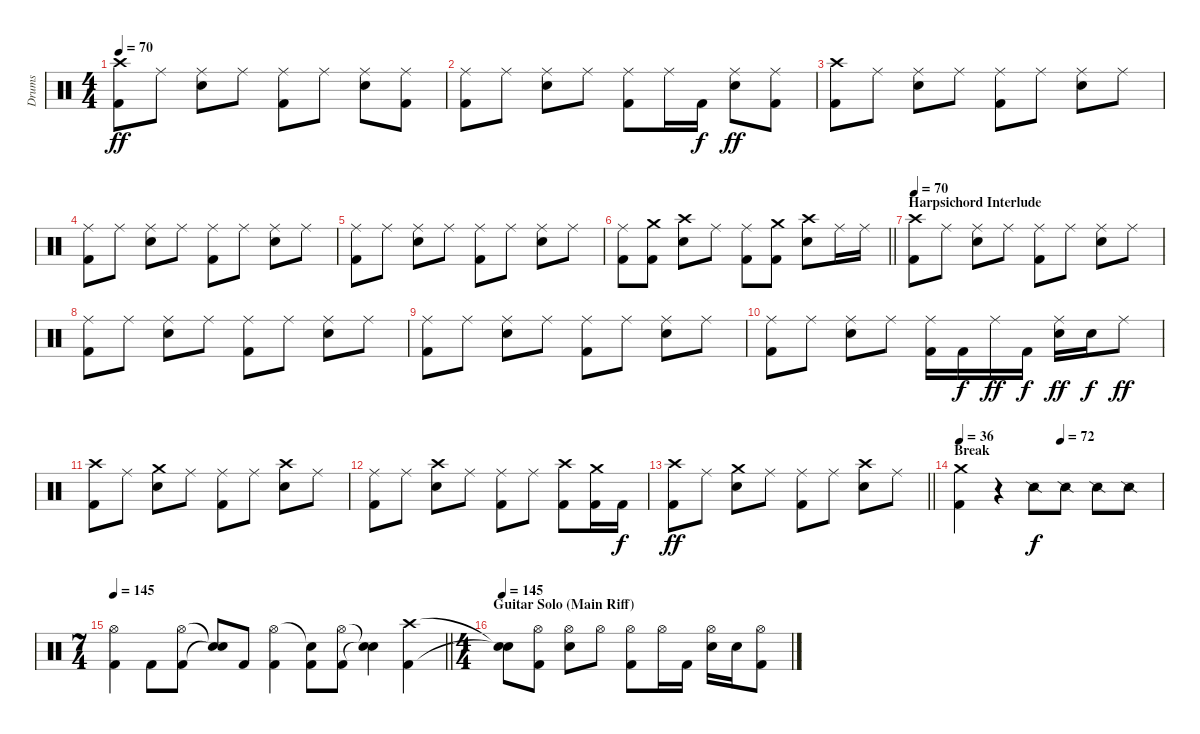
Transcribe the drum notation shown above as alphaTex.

\track ("Drums" "Drums") {instrument percussion}
\staff {score}
\articulation defaults
\ts (4 4)
\tempo 70
\clef neutral
\ks c
("Crash high (hit)" "Kick (hit) 2").8{dy ff} "Ride (middle)".8 ("Ride (middle)" "Snare (hit) 2").8 "Ride (middle)".8 ("Ride (middle)" "Kick (hit) 2").8 "Ride (middle)".8 ("Ride (middle)" "Snare (hit) 2").8 ("Ride (middle)" "Kick (hit) 2").8 |
("Ride (middle)" "Kick (hit) 2").8 "Ride (middle)".8 ("Ride (middle)" "Snare (hit) 2").8 "Ride (middle)".8 ("Ride (middle)" "Kick (hit) 2").8 "Ride (middle)".16 "Kick (hit) 2".16{dy f} ("Ride (middle)" "Snare (hit) 2").8{dy ff} ("Ride (middle)" "Kick (hit) 2").8 |
("Crash high (hit)" "Kick (hit) 2").8 "Ride (middle)".8 ("Ride (middle)" "Snare (hit) 2").8 "Ride (middle)".8 ("Ride (middle)" "Kick (hit) 2").8 "Ride (middle)".8 ("Ride (middle)" "Snare (hit) 2").8 "Ride (middle)".8 |
("Ride (middle)" "Kick (hit) 2").8 "Ride (middle)".8 ("Ride (middle)" "Snare (hit) 2").8 "Ride (middle)".8 ("Ride (middle)" "Kick (hit) 2").8 "Ride (middle)".8 ("Ride (middle)" "Snare (hit) 2").8 "Ride (middle)".8 |
("Ride (middle)" "Kick (hit) 2").8 "Ride (middle)".8 ("Ride (middle)" "Snare (hit) 2").8 "Ride (middle)".8 ("Ride (middle)" "Kick (hit) 2").8 "Ride (middle)".8 ("Ride (middle)" "Snare (hit) 2").8 "Ride (middle)".8 |
\barLineRight lightlight
("Ride (middle)" "Kick (hit) 2").8 ("Crash medium (hit)" "Kick (hit) 2").8 ("Crash high (hit)" "Snare (hit) 2").8 "Ride (middle)".8 ("Ride (middle)" "Kick (hit) 2").8 ("Crash medium (hit)" "Kick (hit) 2").8 ("Crash high (hit)" "Snare (hit) 2").8 "Ride (middle)".16 "Ride (middle)".16 |
\section ("" "Harpsichord Interlude")
\tempo 70
("Crash high (hit)" "Kick (hit) 2").8 "Ride (middle)".8 ("Ride (middle)" "Snare (hit) 2").8 "Ride (middle)".8 ("Ride (middle)" "Kick (hit) 2").8 "Ride (middle)".8 ("Ride (middle)" "Snare (hit) 2").8 "Ride (middle)".8 |
("Ride (middle)" "Kick (hit) 2").8 "Ride (middle)".8 ("Ride (middle)" "Snare (hit) 2").8 "Ride (middle)".8 ("Ride (middle)" "Kick (hit) 2").8 "Ride (middle)".8 ("Ride (middle)" "Snare (hit) 2").8 "Ride (middle)".8 |
("Ride (middle)" "Kick (hit) 2").8 "Ride (middle)".8 ("Ride (middle)" "Snare (hit) 2").8 "Ride (middle)".8 ("Ride (middle)" "Kick (hit) 2").8 "Ride (middle)".8 ("Ride (middle)" "Snare (hit) 2").8 "Ride (middle)".8 |
("Ride (middle)" "Kick (hit) 2").8 "Ride (middle)".8 ("Ride (middle)" "Snare (hit) 2").8 "Ride (middle)".8 ("Ride (middle)" "Kick (hit) 2").16 "Kick (hit) 2".16{dy f} "Ride (middle)".16{dy ff} "Kick (hit) 2".16{dy f} ("Ride (middle)" "Snare (hit) 2").16{dy ff} "Snare (hit) 2".16{dy f} "Ride (middle)".8{dy ff} |
("Crash high (hit)" "Kick (hit) 2").8 "Ride (middle)".8 ("Crash medium (hit)" "Snare (hit) 2").8 "Ride (middle)".8 ("Ride (middle)" "Kick (hit) 2").8 "Ride (middle)".8 ("Crash high (hit)" "Snare (hit) 2").8 "Ride (middle)".8 |
("Ride (middle)" "Kick (hit) 2").8 "Ride (middle)".8 ("Crash high (hit)" "Snare (hit) 2").8 "Ride (middle)".8 ("Ride (middle)" "Kick (hit) 2").8 "Ride (middle)".8 ("Crash high (hit)" "Kick (hit) 2").8 ("Crash medium (hit)" "Kick (hit) 2").16 "Kick (hit) 2".16{dy f} |
\barLineRight lightlight
("Crash high (hit)" "Kick (hit) 2").8{dy ff} "Ride (middle)".8 ("Crash medium (hit)" "Snare (hit) 2").8 "Ride (middle)".8 ("Ride (middle)" "Kick (hit) 2").8 "Ride (middle)".8 ("Crash high (hit)" "Snare (hit) 2").8 "Ride (middle)".8 |
\section ("" "Break")
\tempo 36
\tempo (72 0.5)
("Crash medium (hit)" "Kick (hit) 2").4 r.4 "Snare (side stick) 2".8{dy f} "Snare (side stick) 2".8 "Snare (side stick) 2".8 "Snare (side stick) 2".8 |
\ts (7 4)
\tempo 145
\barLineRight lightlight
("Hi-Hat (open)" "Kick (hit) 2").4 "Kick (hit) 2".8 ("Hi-Hat (open)" "Kick (hit) 2").8 ("Snare (hit)"{t} "Snare (hit)"{t}).8 "Kick (hit) 2".8 ("Hi-Hat (open)" "Kick (hit) 2").4 ("Snare (hit)"{t} "Kick (hit) 2").8 ("Hi-Hat (open)" "Kick (hit) 2").8 ("Snare (hit)"{t} "Snare (hit)"{t}).4 ("Crash high (hit)" "Kick (hit) 2").4 |
\ts (4 4)
\section ("" "Guitar Solo (Main Riff)")
\tempo 145
("Snare (hit)"{t} "Snare (hit)"{t}).8{volume 12} ("Hi-Hat (open)" "Kick (hit) 2").8 ("Hi-Hat (open)" "Snare (hit) 2").8 "Hi-Hat (open)".8 ("Hi-Hat (open)" "Kick (hit) 2").8 "Hi-Hat (open)".16 "Kick (hit) 2".16 ("Hi-Hat (open)" "Snare (hit) 2").16 "Snare (hit) 2".16 ("Hi-Hat (open)" "Kick (hit) 2").8
